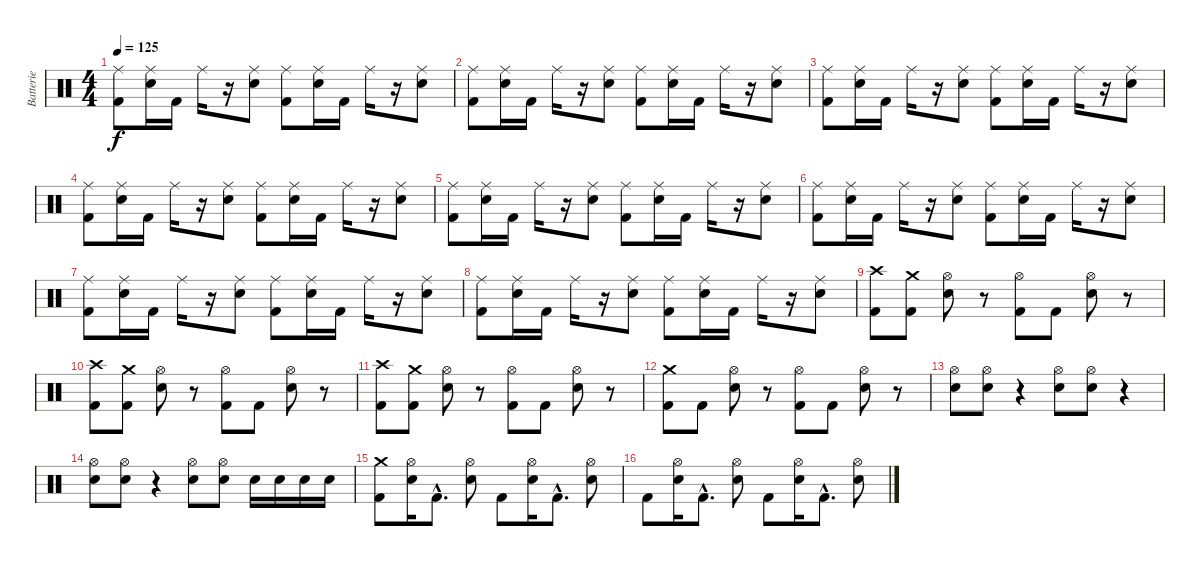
\track ("Batterie" "Batterie") {instrument percussion}
\staff {score}
\articulation defaults
\ts (4 4)
\tempo 125
\clef neutral
\ks c
("Ride (middle)" "Kick (hit) 2").8{dy f} ("Ride (middle)" "Electric Snare (hit)").16 "Kick (hit) 2".16 "Ride (middle)".16 r.16 ("Ride (middle)" "Electric Snare (hit)").8 ("Ride (middle)" "Kick (hit) 2").8 ("Ride (middle)" "Electric Snare (hit)").16 "Kick (hit) 2".16 "Ride (middle)".16 r.16 ("Ride (middle)" "Electric Snare (hit)").8 |
("Ride (middle)" "Kick (hit) 2").8 ("Ride (middle)" "Electric Snare (hit)").16 "Kick (hit) 2".16 "Ride (middle)".16 r.16 ("Ride (middle)" "Electric Snare (hit)").8 ("Ride (middle)" "Kick (hit) 2").8 ("Ride (middle)" "Electric Snare (hit)").16 "Kick (hit) 2".16 "Ride (middle)".16 r.16 ("Ride (middle)" "Electric Snare (hit)").8 |
("Ride (middle)" "Kick (hit) 2").8 ("Ride (middle)" "Electric Snare (hit)").16 "Kick (hit) 2".16 "Ride (middle)".16 r.16 ("Ride (middle)" "Electric Snare (hit)").8 ("Ride (middle)" "Kick (hit) 2").8 ("Ride (middle)" "Electric Snare (hit)").16 "Kick (hit) 2".16 "Ride (middle)".16 r.16 ("Ride (middle)" "Electric Snare (hit)").8 |
("Ride (middle)" "Kick (hit) 2").8 ("Ride (middle)" "Electric Snare (hit)").16 "Kick (hit) 2".16 "Ride (middle)".16 r.16 ("Ride (middle)" "Electric Snare (hit)").8 ("Ride (middle)" "Kick (hit) 2").8 ("Ride (middle)" "Electric Snare (hit)").16 "Kick (hit) 2".16 "Ride (middle)".16 r.16 ("Ride (middle)" "Electric Snare (hit)").8 |
("Ride (middle)" "Kick (hit) 2").8 ("Ride (middle)" "Electric Snare (hit)").16 "Kick (hit) 2".16 "Ride (middle)".16 r.16 ("Ride (middle)" "Electric Snare (hit)").8 ("Ride (middle)" "Kick (hit) 2").8 ("Ride (middle)" "Electric Snare (hit)").16 "Kick (hit) 2".16 "Ride (middle)".16 r.16 ("Ride (middle)" "Electric Snare (hit)").8 |
("Ride (middle)" "Kick (hit) 2").8 ("Ride (middle)" "Electric Snare (hit)").16 "Kick (hit) 2".16 "Ride (middle)".16 r.16 ("Ride (middle)" "Electric Snare (hit)").8 ("Ride (middle)" "Kick (hit) 2").8 ("Ride (middle)" "Electric Snare (hit)").16 "Kick (hit) 2".16 "Ride (middle)".16 r.16 ("Ride (middle)" "Electric Snare (hit)").8 |
("Ride (middle)" "Kick (hit) 2").8 ("Ride (middle)" "Electric Snare (hit)").16 "Kick (hit) 2".16 "Ride (middle)".16 r.16 ("Ride (middle)" "Electric Snare (hit)").8 ("Ride (middle)" "Kick (hit) 2").8 ("Ride (middle)" "Electric Snare (hit)").16 "Kick (hit) 2".16 "Ride (middle)".16 r.16 ("Ride (middle)" "Electric Snare (hit)").8 |
("Ride (middle)" "Kick (hit) 2").8 ("Ride (middle)" "Electric Snare (hit)").16 "Kick (hit) 2".16 "Ride (middle)".16 r.16 ("Ride (middle)" "Electric Snare (hit)").8 ("Ride (middle)" "Kick (hit) 2").8 ("Ride (middle)" "Electric Snare (hit)").16 "Kick (hit) 2".16 "Ride (middle)".16 r.16 ("Ride (middle)" "Electric Snare (hit)").8 |
("Crash high (hit)" "Kick (hit) 2").8 ("Crash medium (hit)" "Kick (hit) 2").8 ("Hi-Hat (open)" "Electric Snare (hit)").8 r.8 ("Hi-Hat (open)" "Kick (hit) 2").8 "Kick (hit) 2".8 ("Hi-Hat (open)" "Electric Snare (hit)").8 r.8 |
("Crash high (hit)" "Kick (hit) 2").8 ("Crash medium (hit)" "Kick (hit) 2").8 ("Hi-Hat (open)" "Electric Snare (hit)").8 r.8 ("Hi-Hat (open)" "Kick (hit) 2").8 "Kick (hit) 2".8 ("Hi-Hat (open)" "Electric Snare (hit)").8 r.8 |
("Crash high (hit)" "Kick (hit) 2").8 ("Crash medium (hit)" "Kick (hit) 2").8 ("Hi-Hat (open)" "Electric Snare (hit)").8 r.8 ("Hi-Hat (open)" "Kick (hit) 2").8 "Kick (hit) 2".8 ("Hi-Hat (open)" "Electric Snare (hit)").8 r.8 |
("Crash medium (hit)" "Kick (hit) 2").8 "Kick (hit) 2".8 ("Hi-Hat (open)" "Electric Snare (hit)").8 r.8 ("Hi-Hat (open)" "Kick (hit) 2").8 "Kick (hit) 2".8 ("Hi-Hat (open)" "Electric Snare (hit)").8 r.8 |
("Hi-Hat (open)" "Electric Snare (hit)").8 ("Hi-Hat (open)" "Electric Snare (hit)").8 r.4 ("Hi-Hat (open)" "Electric Snare (hit)").8 ("Hi-Hat (open)" "Electric Snare (hit)").8 r.4 |
("Hi-Hat (open)" "Electric Snare (hit)").8 ("Hi-Hat (open)" "Electric Snare (hit)").8 r.4 ("Hi-Hat (open)" "Electric Snare (hit)").8 ("Hi-Hat (open)" "Electric Snare (hit)").8 "Electric Snare (hit)".16 "Electric Snare (hit)".16 "Electric Snare (hit)".16 "Electric Snare (hit)".16 |
("Crash medium (hit)" "Kick (hit) 2").8 ("Hi-Hat (open)" "Electric Snare (hit)").16 "Kick (hit) 2"{hac}.8{d} ("Hi-Hat (open)" "Electric Snare (hit)").8 "Kick (hit) 2".8 ("Hi-Hat (open)" "Electric Snare (hit)").16 "Kick (hit) 2"{hac}.8{d} ("Hi-Hat (open)" "Electric Snare (hit)").8 |
"Kick (hit) 2".8 ("Hi-Hat (open)" "Electric Snare (hit)").16 "Kick (hit) 2"{hac}.8{d} ("Hi-Hat (open)" "Electric Snare (hit)").8 "Kick (hit) 2".8 ("Hi-Hat (open)" "Electric Snare (hit)").16 "Kick (hit) 2"{hac}.8{d} ("Hi-Hat (open)" "Electric Snare (hit)").8
